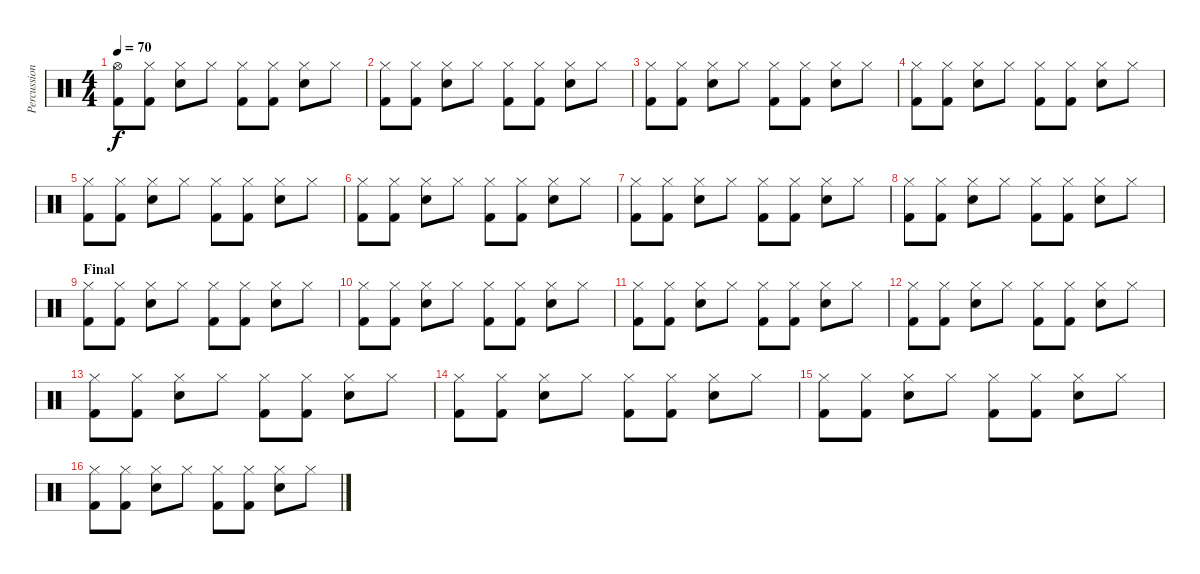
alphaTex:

\track ("Percussions" "Percussion") {instrument percussion}
\staff {score}
\articulation defaults
\ts (4 4)
\tempo 70
\clef neutral
\ks c
("Kick (hit) 2" "Hi-Hat (open)").8{dy f} ("Kick (hit) 2" "Hi-Hat (closed)").8 ("Electric Snare (hit)" "Hi-Hat (closed)").8 "Hi-Hat (closed)".8 ("Kick (hit) 2" "Hi-Hat (closed)").8 ("Kick (hit) 2" "Hi-Hat (closed)").8 ("Snare (hit) 2" "Hi-Hat (closed)").8 "Hi-Hat (closed)".8 |
("Kick (hit) 2" "Hi-Hat (closed)").8 ("Kick (hit) 2" "Hi-Hat (closed)").8 ("Electric Snare (hit)" "Hi-Hat (closed)").8 "Hi-Hat (closed)".8 ("Kick (hit) 2" "Hi-Hat (closed)").8 ("Kick (hit) 2" "Hi-Hat (closed)").8 ("Snare (hit) 2" "Hi-Hat (closed)").8 "Hi-Hat (closed)".8 |
("Kick (hit) 2" "Hi-Hat (closed)").8 ("Kick (hit) 2" "Hi-Hat (closed)").8 ("Electric Snare (hit)" "Hi-Hat (closed)").8 "Hi-Hat (closed)".8 ("Kick (hit) 2" "Hi-Hat (closed)").8 ("Kick (hit) 2" "Hi-Hat (closed)").8 ("Snare (hit) 2" "Hi-Hat (closed)").8 "Hi-Hat (closed)".8 |
("Kick (hit) 2" "Hi-Hat (closed)").8 ("Kick (hit) 2" "Hi-Hat (closed)").8 ("Electric Snare (hit)" "Hi-Hat (closed)").8 "Hi-Hat (closed)".8 ("Kick (hit) 2" "Hi-Hat (closed)").8 ("Kick (hit) 2" "Hi-Hat (closed)").8 ("Snare (hit) 2" "Hi-Hat (closed)").8 "Hi-Hat (closed)".8 |
("Kick (hit) 2" "Hi-Hat (closed)").8 ("Kick (hit) 2" "Hi-Hat (closed)").8 ("Electric Snare (hit)" "Hi-Hat (closed)").8 "Hi-Hat (closed)".8 ("Kick (hit) 2" "Hi-Hat (closed)").8 ("Kick (hit) 2" "Hi-Hat (closed)").8 ("Snare (hit) 2" "Hi-Hat (closed)").8 "Hi-Hat (closed)".8 |
("Kick (hit) 2" "Hi-Hat (closed)").8 ("Kick (hit) 2" "Hi-Hat (closed)").8 ("Electric Snare (hit)" "Hi-Hat (closed)").8 "Hi-Hat (closed)".8 ("Kick (hit) 2" "Hi-Hat (closed)").8 ("Kick (hit) 2" "Hi-Hat (closed)").8 ("Snare (hit) 2" "Hi-Hat (closed)").8 "Hi-Hat (closed)".8 |
("Kick (hit) 2" "Hi-Hat (closed)").8 ("Kick (hit) 2" "Hi-Hat (closed)").8 ("Electric Snare (hit)" "Hi-Hat (closed)").8 "Hi-Hat (closed)".8 ("Kick (hit) 2" "Hi-Hat (closed)").8 ("Kick (hit) 2" "Hi-Hat (closed)").8 ("Snare (hit) 2" "Hi-Hat (closed)").8 "Hi-Hat (closed)".8 |
("Kick (hit) 2" "Hi-Hat (closed)").8 ("Kick (hit) 2" "Hi-Hat (closed)").8 ("Electric Snare (hit)" "Hi-Hat (closed)").8 "Hi-Hat (closed)".8 ("Kick (hit) 2" "Hi-Hat (closed)").8 ("Kick (hit) 2" "Hi-Hat (closed)").8 ("Snare (hit) 2" "Hi-Hat (closed)").8 "Hi-Hat (closed)".8 |
\section ("" "Final")
("Kick (hit) 2" "Hi-Hat (closed)").8 ("Kick (hit) 2" "Hi-Hat (closed)").8 ("Electric Snare (hit)" "Hi-Hat (closed)").8 "Hi-Hat (closed)".8 ("Kick (hit) 2" "Hi-Hat (closed)").8 ("Kick (hit) 2" "Hi-Hat (closed)").8 ("Snare (hit) 2" "Hi-Hat (closed)").8 "Hi-Hat (closed)".8 |
("Kick (hit) 2" "Hi-Hat (closed)").8 ("Kick (hit) 2" "Hi-Hat (closed)").8 ("Electric Snare (hit)" "Hi-Hat (closed)").8 "Hi-Hat (closed)".8 ("Kick (hit) 2" "Hi-Hat (closed)").8 ("Kick (hit) 2" "Hi-Hat (closed)").8 ("Snare (hit) 2" "Hi-Hat (closed)").8 "Hi-Hat (closed)".8 |
("Kick (hit) 2" "Hi-Hat (closed)").8 ("Kick (hit) 2" "Hi-Hat (closed)").8 ("Electric Snare (hit)" "Hi-Hat (closed)").8 "Hi-Hat (closed)".8 ("Kick (hit) 2" "Hi-Hat (closed)").8 ("Kick (hit) 2" "Hi-Hat (closed)").8 ("Snare (hit) 2" "Hi-Hat (closed)").8 "Hi-Hat (closed)".8 |
("Kick (hit) 2" "Hi-Hat (closed)").8 ("Kick (hit) 2" "Hi-Hat (closed)").8 ("Electric Snare (hit)" "Hi-Hat (closed)").8 "Hi-Hat (closed)".8 ("Kick (hit) 2" "Hi-Hat (closed)").8 ("Kick (hit) 2" "Hi-Hat (closed)").8 ("Snare (hit) 2" "Hi-Hat (closed)").8 "Hi-Hat (closed)".8 |
("Kick (hit) 2" "Hi-Hat (closed)").8 ("Kick (hit) 2" "Hi-Hat (closed)").8 ("Electric Snare (hit)" "Hi-Hat (closed)").8 "Hi-Hat (closed)".8 ("Kick (hit) 2" "Hi-Hat (closed)").8 ("Kick (hit) 2" "Hi-Hat (closed)").8 ("Snare (hit) 2" "Hi-Hat (closed)").8 "Hi-Hat (closed)".8 |
("Kick (hit) 2" "Hi-Hat (closed)").8 ("Kick (hit) 2" "Hi-Hat (closed)").8 ("Electric Snare (hit)" "Hi-Hat (closed)").8 "Hi-Hat (closed)".8 ("Kick (hit) 2" "Hi-Hat (closed)").8 ("Kick (hit) 2" "Hi-Hat (closed)").8 ("Snare (hit) 2" "Hi-Hat (closed)").8 "Hi-Hat (closed)".8 |
("Kick (hit) 2" "Hi-Hat (closed)").8 ("Kick (hit) 2" "Hi-Hat (closed)").8 ("Electric Snare (hit)" "Hi-Hat (closed)").8 "Hi-Hat (closed)".8 ("Kick (hit) 2" "Hi-Hat (closed)").8 ("Kick (hit) 2" "Hi-Hat (closed)").8 ("Snare (hit) 2" "Hi-Hat (closed)").8 "Hi-Hat (closed)".8 |
("Kick (hit) 2" "Hi-Hat (closed)").8 ("Kick (hit) 2" "Hi-Hat (closed)").8 ("Electric Snare (hit)" "Hi-Hat (closed)").8 "Hi-Hat (closed)".8 ("Kick (hit) 2" "Hi-Hat (closed)").8 ("Kick (hit) 2" "Hi-Hat (closed)").8 ("Snare (hit) 2" "Hi-Hat (closed)").8 "Hi-Hat (closed)".8
